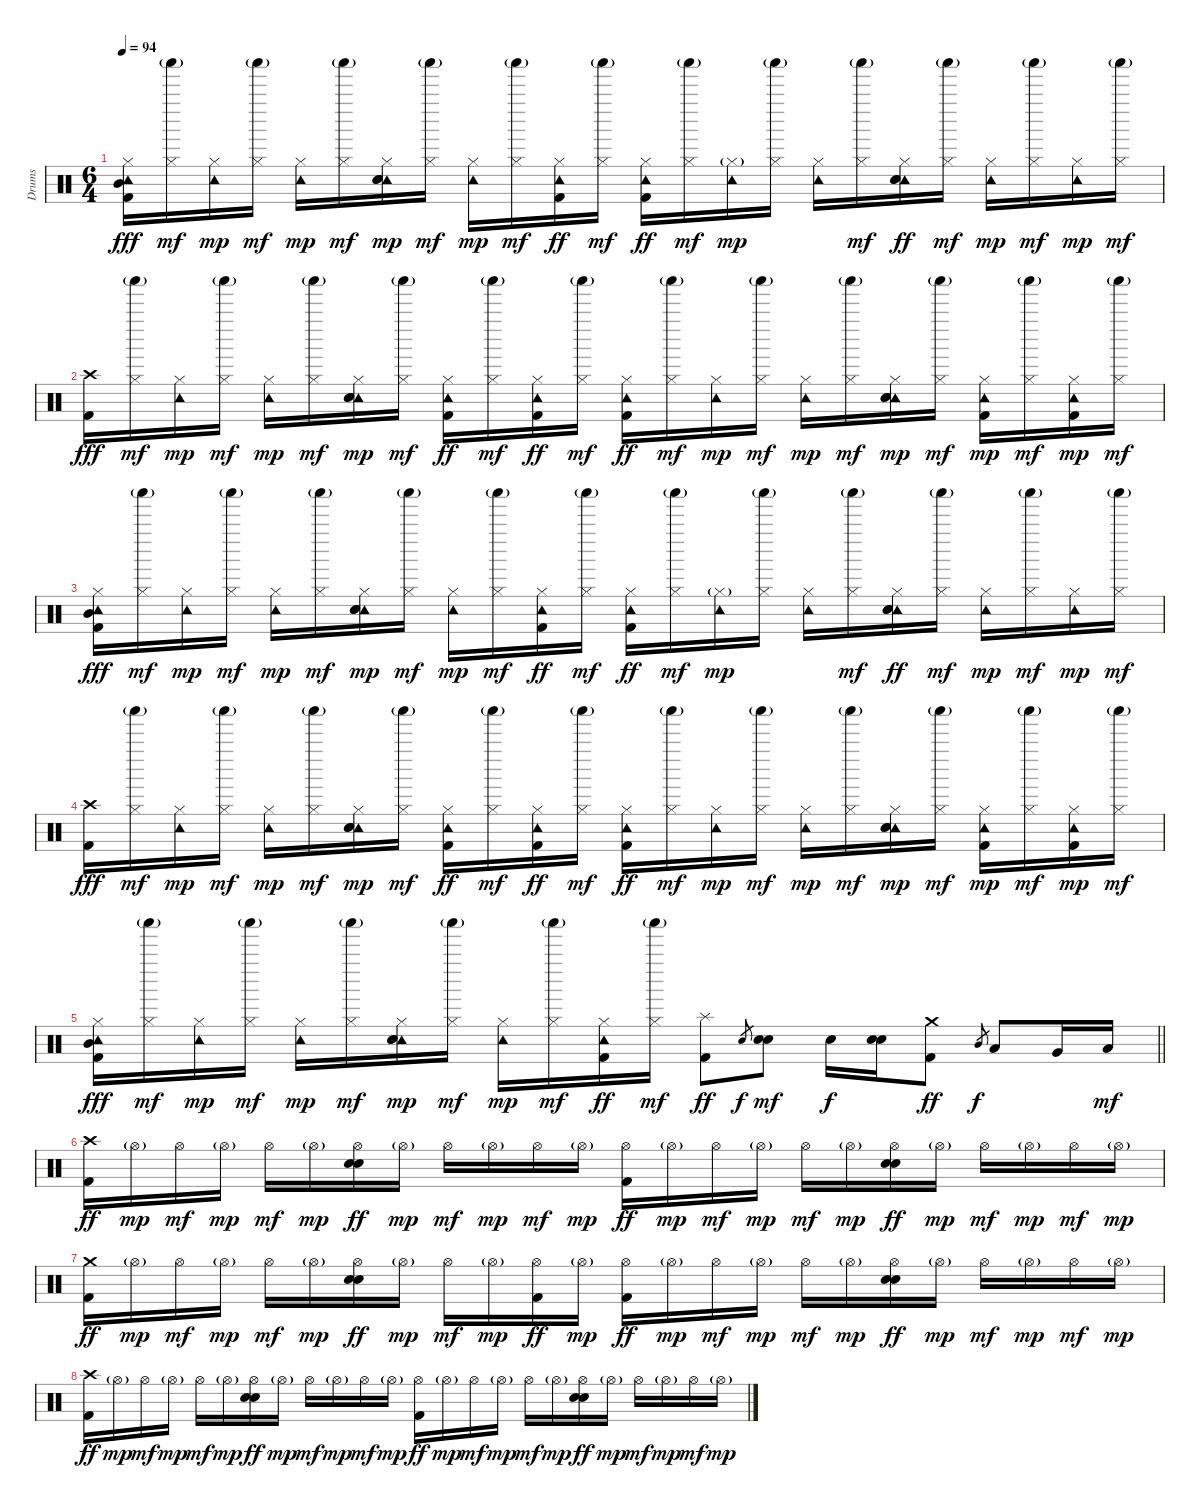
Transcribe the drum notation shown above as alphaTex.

\track ("Drums" "Drums") {instrument percussion}
\staff {score}
\articulation defaults
\ts (6 4)
\tempo 94
\clef neutral
\ks c
("Hi-Hat (closed)" "Tambourine (hit)" "Mid Tom (hit)" "Kick (hit) 2").16{dy fff} ("Shaker (hit)"{g} "Hi-Hat (closed)").16{dy mf} ("Hi-Hat (closed)" "Tambourine (hit)").16{dy mp} ("Shaker (hit)"{g} "Hi-Hat (closed)").16{dy mf} ("Hi-Hat (closed)" "Tambourine (hit)").16{dy mp} ("Shaker (hit)"{g} "Hi-Hat (closed)").16{dy mf} ("Hi-Hat (closed)" "Tambourine (hit)" "Electric Snare (hit)" "Metronome (bell)").16{dy mp} ("Shaker (hit)"{g} "Hi-Hat (closed)").16{dy mf} ("Hi-Hat (closed)" "Tambourine (hit)").16{dy mp} ("Shaker (hit)"{g} "Hi-Hat (closed)").16{dy mf} ("Hi-Hat (closed)" "Tambourine (hit)" "Kick (hit) 2").16{dy ff} ("Shaker (hit)"{g} "Hi-Hat (closed)").16{dy mf} ("Hi-Hat (closed)" "Tambourine (hit)" "Kick (hit) 2").16{dy ff} ("Shaker (hit)"{g} "Hi-Hat (closed)").16{dy mf} ("Hi-Hat (closed)"{g} "Tambourine (hit)").16{dy mp} ("Shaker (hit)"{g} "Hi-Hat (closed)").16 ("Hi-Hat (closed)" "Tambourine (hit)").16 ("Shaker (hit)"{g} "Hi-Hat (closed)").16{dy mf} ("Hi-Hat (closed)" "Tambourine (hit)" "Electric Snare (hit)" "Metronome (bell)").16{dy ff} ("Shaker (hit)"{g} "Hi-Hat (closed)").16{dy mf} ("Hi-Hat (closed)" "Tambourine (hit)").16{dy mp} ("Shaker (hit)"{g} "Hi-Hat (closed)").16{dy mf} ("Hi-Hat (closed)" "Tambourine (hit)").16{dy mp} ("Shaker (hit)"{g} "Hi-Hat (closed)").16{dy mf} |
("Crash high (hit)" "Kick (hit) 2").16{dy fff} ("Shaker (hit)"{g} "Hi-Hat (closed)").16{dy mf} ("Hi-Hat (closed)" "Tambourine (hit)").16{dy mp} ("Shaker (hit)"{g} "Hi-Hat (closed)").16{dy mf} ("Hi-Hat (closed)" "Tambourine (hit)").16{dy mp} ("Shaker (hit)"{g} "Hi-Hat (closed)").16{dy mf} ("Hi-Hat (closed)" "Tambourine (hit)" "Electric Snare (hit)" "Metronome (bell)").16{dy mp} ("Shaker (hit)"{g} "Hi-Hat (closed)").16{dy mf} ("Hi-Hat (closed)" "Tambourine (hit)" "Kick (hit) 2").16{dy ff} ("Shaker (hit)"{g} "Hi-Hat (closed)").16{dy mf} ("Hi-Hat (closed)" "Tambourine (hit)" "Kick (hit) 2").16{dy ff} ("Shaker (hit)"{g} "Hi-Hat (closed)").16{dy mf} ("Hi-Hat (closed)" "Tambourine (hit)" "Kick (hit) 2").16{dy ff} ("Shaker (hit)"{g} "Hi-Hat (closed)").16{dy mf} ("Hi-Hat (closed)" "Tambourine (hit)").16{dy mp} ("Shaker (hit)"{g} "Hi-Hat (closed)").16{dy mf} ("Hi-Hat (closed)" "Tambourine (hit)").16{dy mp} ("Shaker (hit)"{g} "Hi-Hat (closed)").16{dy mf} ("Hi-Hat (closed)" "Tambourine (hit)" "Electric Snare (hit)" "Metronome (bell)").16{dy mp} ("Shaker (hit)"{g} "Hi-Hat (closed)").16{dy mf} ("Hi-Hat (closed)" "Tambourine (hit)" "Kick (hit) 2").16{dy mp} ("Shaker (hit)"{g} "Hi-Hat (closed)").16{dy mf} ("Hi-Hat (closed)" "Tambourine (hit)" "Kick (hit) 2").16{dy mp} ("Shaker (hit)"{g} "Hi-Hat (closed)").16{dy mf} |
("Hi-Hat (closed)" "Tambourine (hit)" "Mid Tom (hit)" "Kick (hit) 2").16{dy fff} ("Shaker (hit)"{g} "Hi-Hat (closed)").16{dy mf} ("Hi-Hat (closed)" "Tambourine (hit)").16{dy mp} ("Shaker (hit)"{g} "Hi-Hat (closed)").16{dy mf} ("Hi-Hat (closed)" "Tambourine (hit)").16{dy mp} ("Shaker (hit)"{g} "Hi-Hat (closed)").16{dy mf} ("Hi-Hat (closed)" "Tambourine (hit)" "Electric Snare (hit)" "Metronome (bell)").16{dy mp} ("Shaker (hit)"{g} "Hi-Hat (closed)").16{dy mf} ("Hi-Hat (closed)" "Tambourine (hit)").16{dy mp} ("Shaker (hit)"{g} "Hi-Hat (closed)").16{dy mf} ("Hi-Hat (closed)" "Tambourine (hit)" "Kick (hit) 2").16{dy ff} ("Shaker (hit)"{g} "Hi-Hat (closed)").16{dy mf} ("Hi-Hat (closed)" "Tambourine (hit)" "Kick (hit) 2").16{dy ff} ("Shaker (hit)"{g} "Hi-Hat (closed)").16{dy mf} ("Hi-Hat (closed)"{g} "Tambourine (hit)").16{dy mp} ("Shaker (hit)"{g} "Hi-Hat (closed)").16 ("Hi-Hat (closed)" "Tambourine (hit)").16 ("Shaker (hit)"{g} "Hi-Hat (closed)").16{dy mf} ("Hi-Hat (closed)" "Tambourine (hit)" "Electric Snare (hit)" "Metronome (bell)").16{dy ff} ("Shaker (hit)"{g} "Hi-Hat (closed)").16{dy mf} ("Hi-Hat (closed)" "Tambourine (hit)").16{dy mp} ("Shaker (hit)"{g} "Hi-Hat (closed)").16{dy mf} ("Hi-Hat (closed)" "Tambourine (hit)").16{dy mp} ("Shaker (hit)"{g} "Hi-Hat (closed)").16{dy mf} |
("Crash high (hit)" "Kick (hit) 2").16{dy fff} ("Shaker (hit)"{g} "Hi-Hat (closed)").16{dy mf} ("Hi-Hat (closed)" "Tambourine (hit)").16{dy mp} ("Shaker (hit)"{g} "Hi-Hat (closed)").16{dy mf} ("Hi-Hat (closed)" "Tambourine (hit)").16{dy mp} ("Shaker (hit)"{g} "Hi-Hat (closed)").16{dy mf} ("Hi-Hat (closed)" "Tambourine (hit)" "Electric Snare (hit)" "Metronome (bell)").16{dy mp} ("Shaker (hit)"{g} "Hi-Hat (closed)").16{dy mf} ("Hi-Hat (closed)" "Tambourine (hit)" "Kick (hit) 2").16{dy ff} ("Shaker (hit)"{g} "Hi-Hat (closed)").16{dy mf} ("Hi-Hat (closed)" "Tambourine (hit)" "Kick (hit) 2").16{dy ff} ("Shaker (hit)"{g} "Hi-Hat (closed)").16{dy mf} ("Hi-Hat (closed)" "Tambourine (hit)" "Kick (hit) 2").16{dy ff} ("Shaker (hit)"{g} "Hi-Hat (closed)").16{dy mf} ("Hi-Hat (closed)" "Tambourine (hit)").16{dy mp} ("Shaker (hit)"{g} "Hi-Hat (closed)").16{dy mf} ("Hi-Hat (closed)" "Tambourine (hit)").16{dy mp} ("Shaker (hit)"{g} "Hi-Hat (closed)").16{dy mf} ("Hi-Hat (closed)" "Tambourine (hit)" "Electric Snare (hit)" "Metronome (bell)").16{dy mp} ("Shaker (hit)"{g} "Hi-Hat (closed)").16{dy mf} ("Hi-Hat (closed)" "Tambourine (hit)" "Kick (hit) 2").16{dy mp} ("Shaker (hit)"{g} "Hi-Hat (closed)").16{dy mf} ("Hi-Hat (closed)" "Tambourine (hit)" "Kick (hit) 2").16{dy mp} ("Shaker (hit)"{g} "Hi-Hat (closed)").16{dy mf} |
\barLineRight lightlight
("Hi-Hat (closed)" "Tambourine (hit)" "Mid Tom (hit)" "Kick (hit) 2").16{dy fff} ("Shaker (hit)"{g} "Hi-Hat (closed)").16{dy mf} ("Hi-Hat (closed)" "Tambourine (hit)").16{dy mp} ("Shaker (hit)"{g} "Hi-Hat (closed)").16{dy mf} ("Hi-Hat (closed)" "Tambourine (hit)").16{dy mp} ("Shaker (hit)"{g} "Hi-Hat (closed)").16{dy mf} ("Hi-Hat (closed)" "Tambourine (hit)" "Electric Snare (hit)" "Metronome (bell)").16{dy mp} ("Shaker (hit)"{g} "Hi-Hat (closed)").16{dy mf} ("Hi-Hat (closed)" "Tambourine (hit)").16{dy mp} ("Shaker (hit)"{g} "Hi-Hat (closed)").16{dy mf} ("Hi-Hat (closed)" "Tambourine (hit)" "Kick (hit) 2").16{dy ff} ("Shaker (hit)"{g} "Hi-Hat (closed)").16{dy mf} ("Splash (hit)" "Kick (hit) 2").8{dy ff} "Electric Snare (hit)".8{gr dy f} ("Electric Snare (hit)" "Metronome (bell)").8{dy mf} "Electric Snare (hit)".16{dy f} ("Electric Snare (hit)" "Metronome (bell)").16 ("Crash medium (hit)" "Kick (hit) 2").8{dy ff} "Mid Tom (hit)".8{gr dy f} "Low Tom (hit)".8 "Very Low Tom (hit)".16 "Low Floor Tom (hit)".16{dy mf} |
("Crash high (hit)" "Kick (hit) 2").16{dy ff} "Hi-Hat (open)"{g}.16{dy mp} "Hi-Hat (open)".16{dy mf} "Hi-Hat (open)"{g}.16{dy mp} "Hi-Hat (open)".16{dy mf} "Hi-Hat (open)"{g}.16{dy mp} ("Hi-Hat (open)" "Electric Snare (hit)" "Metronome (bell)").16{dy ff} "Hi-Hat (open)"{g}.16{dy mp} "Hi-Hat (open)".16{dy mf} "Hi-Hat (open)"{g}.16{dy mp} "Hi-Hat (open)".16{dy mf} "Hi-Hat (open)"{g}.16{dy mp} ("Hi-Hat (open)" "Kick (hit) 2").16{dy ff} "Hi-Hat (open)"{g}.16{dy mp} "Hi-Hat (open)".16{dy mf} "Hi-Hat (open)"{g}.16{dy mp} "Hi-Hat (open)".16{dy mf} "Hi-Hat (open)"{g}.16{dy mp} ("Hi-Hat (open)" "Electric Snare (hit)" "Metronome (bell)").16{dy ff} "Hi-Hat (open)"{g}.16{dy mp} "Hi-Hat (open)".16{dy mf} "Hi-Hat (open)"{g}.16{dy mp} "Hi-Hat (open)".16{dy mf} "Hi-Hat (open)"{g}.16{dy mp} |
("Crash medium (hit)" "Kick (hit) 2").16{dy ff} "Hi-Hat (open)"{g}.16{dy mp} "Hi-Hat (open)".16{dy mf} "Hi-Hat (open)"{g}.16{dy mp} "Hi-Hat (open)".16{dy mf} "Hi-Hat (open)"{g}.16{dy mp} ("Hi-Hat (open)" "Electric Snare (hit)" "Metronome (bell)").16{dy ff} "Hi-Hat (open)"{g}.16{dy mp} "Hi-Hat (open)".16{dy mf} "Hi-Hat (open)"{g}.16{dy mp} ("Hi-Hat (open)" "Kick (hit) 2").16{dy ff} "Hi-Hat (open)"{g}.16{dy mp} ("Hi-Hat (open)" "Kick (hit) 2").16{dy ff} "Hi-Hat (open)"{g}.16{dy mp} "Hi-Hat (open)".16{dy mf} "Hi-Hat (open)"{g}.16{dy mp} "Hi-Hat (open)".16{dy mf} "Hi-Hat (open)"{g}.16{dy mp} ("Hi-Hat (open)" "Electric Snare (hit)" "Metronome (bell)").16{dy ff} "Hi-Hat (open)"{g}.16{dy mp} "Hi-Hat (open)".16{dy mf} "Hi-Hat (open)"{g}.16{dy mp} "Hi-Hat (open)".16{dy mf} "Hi-Hat (open)"{g}.16{dy mp} |
("Crash high (hit)" "Kick (hit) 2").16{dy ff} "Hi-Hat (open)"{g}.16{dy mp} "Hi-Hat (open)".16{dy mf} "Hi-Hat (open)"{g}.16{dy mp} "Hi-Hat (open)".16{dy mf} "Hi-Hat (open)"{g}.16{dy mp} ("Hi-Hat (open)" "Electric Snare (hit)" "Metronome (bell)").16{dy ff} "Hi-Hat (open)"{g}.16{dy mp} "Hi-Hat (open)".16{dy mf} "Hi-Hat (open)"{g}.16{dy mp} "Hi-Hat (open)".16{dy mf} "Hi-Hat (open)"{g}.16{dy mp} ("Hi-Hat (open)" "Kick (hit) 2").16{dy ff} "Hi-Hat (open)"{g}.16{dy mp} "Hi-Hat (open)".16{dy mf} "Hi-Hat (open)"{g}.16{dy mp} "Hi-Hat (open)".16{dy mf} "Hi-Hat (open)"{g}.16{dy mp} ("Hi-Hat (open)" "Electric Snare (hit)" "Metronome (bell)").16{dy ff} "Hi-Hat (open)"{g}.16{dy mp} "Hi-Hat (open)".16{dy mf} "Hi-Hat (open)"{g}.16{dy mp} "Hi-Hat (open)".16{dy mf} "Hi-Hat (open)"{g}.16{dy mp}
